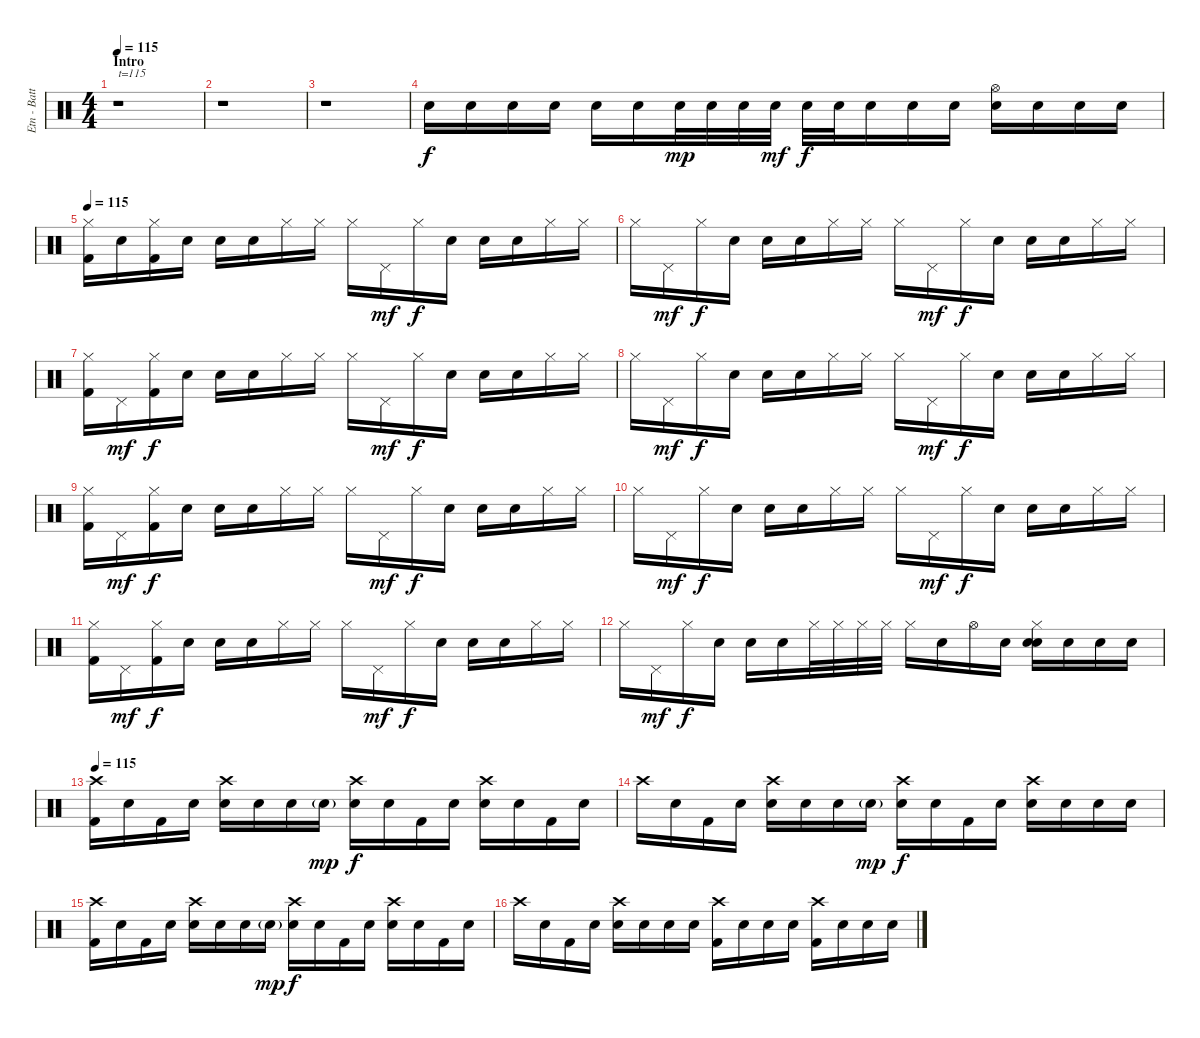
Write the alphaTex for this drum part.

\track ("Etn - Batterie" "Etn - Batt") {instrument percussion}
\staff {score}
\articulation defaults
\ts (4 4)
\section ("" "Intro")
\tempo 115
\clef neutral
\ks c
r.1{txt "t=115" dy f volume 16 balance 8} |
r.1 |
r.1 |
"Snare (hit)".16 "Snare (hit)".16 "Snare (hit)".16 "Snare (hit)".16 "Snare (hit)".16 "Snare (hit)".16 "Electric Snare (hit)".32{dy mp} "Electric Snare (hit)".32 "Electric Snare (hit)".32 "Electric Snare (hit)".32{dy mf} "Electric Snare (hit)".32{dy f} "Snare (hit)".32 "Electric Snare (hit)".16 "Snare (hit)".16 "Electric Snare (hit)".16 ("Hi-Hat (open)" "Electric Snare (hit)").16 "Snare (hit)".16 "Electric Snare (hit)".16 "Snare (hit)".16 |
\section ("" "")
\tempo 115
("Hi-Hat (closed)" "Kick (hit) 2").16{volume 16 balance 8} "Snare (hit)".16 ("Hi-Hat (closed)" "Kick (hit) 2").16 "Snare (hit)".16 "Electric Snare (hit)".16 "Snare (hit)".16 "Hi-Hat (closed)".16 "Hi-Hat (closed)".16 "Hi-Hat (closed)".16 "Pedal Hi-Hat (hit)".16{dy mf} "Hi-Hat (closed)".16{dy f} "Snare (hit)".16 "Electric Snare (hit)".16 "Snare (hit)".16 "Hi-Hat (closed)".16 "Hi-Hat (closed)".16 |
"Hi-Hat (closed)".16 "Pedal Hi-Hat (hit)".16{dy mf} "Hi-Hat (closed)".16{dy f} "Snare (hit)".16 "Electric Snare (hit)".16 "Snare (hit)".16 "Hi-Hat (closed)".16 "Hi-Hat (closed)".16 "Hi-Hat (closed)".16 "Pedal Hi-Hat (hit)".16{dy mf} "Hi-Hat (closed)".16{dy f} "Snare (hit)".16 "Electric Snare (hit)".16 "Snare (hit)".16 "Hi-Hat (closed)".16 "Hi-Hat (closed)".16 |
("Hi-Hat (closed)" "Kick (hit) 2").16 "Pedal Hi-Hat (hit)".16{dy mf} ("Hi-Hat (closed)" "Kick (hit) 2").16{dy f} "Snare (hit)".16 "Electric Snare (hit)".16 "Snare (hit)".16 "Hi-Hat (closed)".16 "Hi-Hat (closed)".16 "Hi-Hat (closed)".16 "Pedal Hi-Hat (hit)".16{dy mf} "Hi-Hat (closed)".16{dy f} "Snare (hit)".16 "Electric Snare (hit)".16 "Snare (hit)".16 "Hi-Hat (closed)".16 "Hi-Hat (closed)".16 |
"Hi-Hat (closed)".16 "Pedal Hi-Hat (hit)".16{dy mf} "Hi-Hat (closed)".16{dy f} "Snare (hit)".16 "Electric Snare (hit)".16 "Snare (hit)".16 "Hi-Hat (closed)".16 "Hi-Hat (closed)".16 "Hi-Hat (closed)".16 "Pedal Hi-Hat (hit)".16{dy mf} "Hi-Hat (closed)".16{dy f} "Snare (hit)".16 "Electric Snare (hit)".16 "Snare (hit)".16 "Hi-Hat (closed)".16 "Hi-Hat (closed)".16 |
("Hi-Hat (closed)" "Kick (hit) 2").16 "Pedal Hi-Hat (hit)".16{dy mf} ("Hi-Hat (closed)" "Kick (hit) 2").16{dy f} "Snare (hit)".16 "Electric Snare (hit)".16 "Snare (hit)".16 "Hi-Hat (closed)".16 "Hi-Hat (closed)".16 "Hi-Hat (closed)".16 "Pedal Hi-Hat (hit)".16{dy mf} "Hi-Hat (closed)".16{dy f} "Snare (hit)".16 "Electric Snare (hit)".16 "Snare (hit)".16 "Hi-Hat (closed)".16 "Hi-Hat (closed)".16 |
"Hi-Hat (closed)".16 "Pedal Hi-Hat (hit)".16{dy mf} "Hi-Hat (closed)".16{dy f} "Snare (hit)".16 "Electric Snare (hit)".16 "Snare (hit)".16 "Hi-Hat (closed)".16 "Hi-Hat (closed)".16 "Hi-Hat (closed)".16 "Pedal Hi-Hat (hit)".16{dy mf} "Hi-Hat (closed)".16{dy f} "Snare (hit)".16 "Electric Snare (hit)".16 "Snare (hit)".16 "Hi-Hat (closed)".16 "Hi-Hat (closed)".16 |
("Hi-Hat (closed)" "Kick (hit) 2").16 "Pedal Hi-Hat (hit)".16{dy mf} ("Hi-Hat (closed)" "Kick (hit) 2").16{dy f} "Snare (hit)".16 "Electric Snare (hit)".16 "Snare (hit)".16 "Hi-Hat (closed)".16 "Hi-Hat (closed)".16 "Hi-Hat (closed)".16 "Pedal Hi-Hat (hit)".16{dy mf} "Hi-Hat (closed)".16{dy f} "Snare (hit)".16 "Electric Snare (hit)".16 "Snare (hit)".16 "Hi-Hat (closed)".16 "Hi-Hat (closed)".16 |
"Hi-Hat (closed)".16 "Pedal Hi-Hat (hit)".16{dy mf} "Hi-Hat (closed)".16{dy f} "Snare (hit)".16 "Electric Snare (hit)".16 "Snare (hit)".16 "Hi-Hat (closed)".32 "Hi-Hat (closed)".32 "Hi-Hat (closed)".32 "Hi-Hat (closed)".32 "Hi-Hat (closed)".16 "Snare (hit)".16 "Hi-Hat (open)".16 "Snare (hit)".16 ("Hi-Hat (closed)" "Electric Snare (hit)" "Snare (hit) 2").16 "Snare (hit)".16 "Snare (hit)".16 "Snare (hit)".16 |
\section ("" "")
\tempo 115
("Crash high (hit)" "Kick (hit) 2").16{volume 16 balance 8} "Snare (hit)".16 "Kick (hit) 2".16 "Snare (hit)".16 ("Crash high (hit)" "Electric Snare (hit)").16 "Snare (hit)".16 "Snare (hit)".16 "Electric Snare (hit)"{g}.16{dy mp} ("Crash high (hit)" "Electric Snare (hit)").16{dy f} "Snare (hit)".16 "Kick (hit) 2".16 "Snare (hit)".16 ("Crash high (hit)" "Electric Snare (hit)").16 "Snare (hit)".16 "Kick (hit) 2".16 "Snare (hit)".16 |
"Crash high (hit)".16 "Snare (hit)".16 "Kick (hit) 2".16 "Snare (hit)".16 ("Crash high (hit)" "Electric Snare (hit)").16 "Snare (hit)".16 "Snare (hit)".16 "Electric Snare (hit)"{g}.16{dy mp} ("Crash high (hit)" "Electric Snare (hit)").16{dy f} "Snare (hit)".16 "Kick (hit) 2".16 "Snare (hit)".16 ("Crash high (hit)" "Electric Snare (hit)").16 "Snare (hit)".16 "Electric Snare (hit)".16 "Electric Snare (hit)".16 |
("Crash high (hit)" "Kick (hit) 2").16 "Snare (hit)".16 "Kick (hit) 2".16 "Snare (hit)".16 ("Crash high (hit)" "Electric Snare (hit)").16 "Snare (hit)".16 "Snare (hit)".16 "Electric Snare (hit)"{g}.16{dy mp} ("Crash high (hit)" "Electric Snare (hit)").16{dy f} "Snare (hit)".16 "Kick (hit) 2".16 "Snare (hit)".16 ("Crash high (hit)" "Electric Snare (hit)").16 "Snare (hit)".16 "Kick (hit) 2".16 "Snare (hit)".16 |
"Crash high (hit)".16 "Snare (hit)".16 "Kick (hit) 2".16 "Snare (hit)".16 ("Crash high (hit)" "Electric Snare (hit)").16 "Snare (hit)".16 "Snare (hit)".16 "Snare (hit)".16 ("Crash high (hit)" "Kick (hit) 2").16 "Snare (hit)".16 "Electric Snare (hit)".16 "Snare (hit)".16 ("Crash high (hit)" "Kick (hit) 2").16 "Snare (hit)".16 "Electric Snare (hit)".16 "Snare (hit)".16
